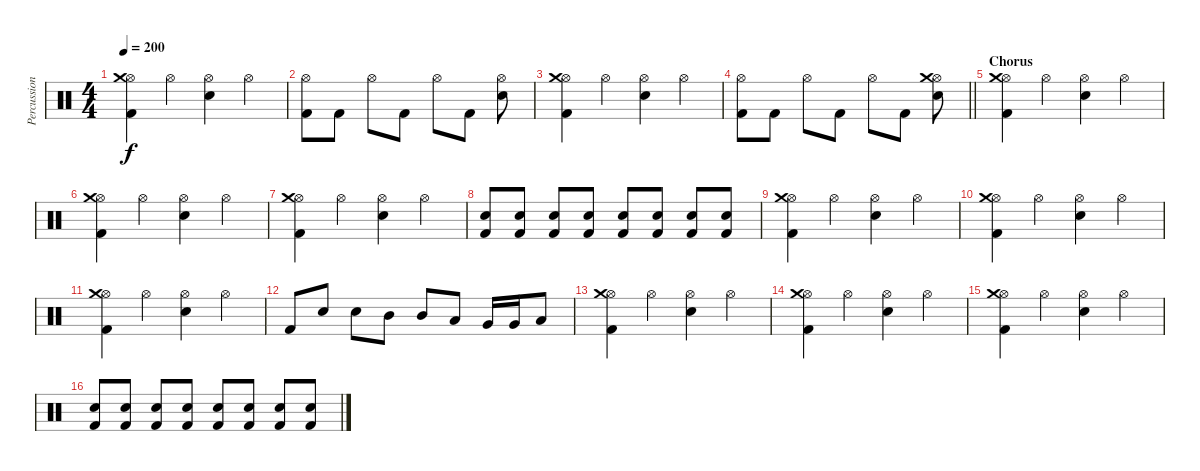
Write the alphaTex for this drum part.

\track ("Percussion" "Percussion") {instrument percussion}
\staff {score}
\articulation defaults
\ts (4 4)
\tempo 200
\clef neutral
\ks c
("Kick (hit) 2" "Hi-Hat (open)" "Crash medium (hit)").4{dy f} "Hi-Hat (open)".4 ("Electric Snare (hit)" "Hi-Hat (open)").4 "Hi-Hat (open)".4 |
("Kick (hit) 2" "Hi-Hat (open)").8 "Kick (hit) 2".8 "Hi-Hat (open)".8 "Kick (hit) 2".8 "Hi-Hat (open)".8 "Kick (hit) 2".8 ("Electric Snare (hit)" "Hi-Hat (open)").8 |
("Kick (hit) 2" "Hi-Hat (open)" "Crash medium (hit)").4 "Hi-Hat (open)".4 ("Electric Snare (hit)" "Hi-Hat (open)").4 "Hi-Hat (open)".4 |
\barLineRight lightlight
("Kick (hit) 2" "Hi-Hat (open)").8 "Kick (hit) 2".8 "Hi-Hat (open)".8 "Kick (hit) 2".8 "Hi-Hat (open)".8 "Kick (hit) 2".8 ("Electric Snare (hit)" "Hi-Hat (open)" "Crash medium (hit)").8 |
\section ("" "Chorus")
("Kick (hit) 2" "Hi-Hat (open)" "Crash medium (hit)").4 "Hi-Hat (open)".4 ("Electric Snare (hit)" "Hi-Hat (open)").4 "Hi-Hat (open)".4 |
("Kick (hit) 2" "Hi-Hat (open)" "Crash medium (hit)").4 "Hi-Hat (open)".4 ("Electric Snare (hit)" "Hi-Hat (open)").4 "Hi-Hat (open)".4 |
("Kick (hit) 2" "Hi-Hat (open)" "Crash medium (hit)").4 "Hi-Hat (open)".4 ("Electric Snare (hit)" "Hi-Hat (open)").4 "Hi-Hat (open)".4 |
("Kick (hit) 2" "Electric Snare (hit)").8 ("Kick (hit) 2" "Electric Snare (hit)").8 ("Kick (hit) 2" "Electric Snare (hit)").8 ("Kick (hit) 2" "Electric Snare (hit)").8 ("Kick (hit) 2" "Electric Snare (hit)").8 ("Kick (hit) 2" "Electric Snare (hit)").8 ("Kick (hit) 2" "Electric Snare (hit)").8 ("Kick (hit) 2" "Electric Snare (hit)").8 |
("Kick (hit) 2" "Hi-Hat (open)" "Crash medium (hit)").4 "Hi-Hat (open)".4 ("Electric Snare (hit)" "Hi-Hat (open)").4 "Hi-Hat (open)".4 |
("Kick (hit) 2" "Hi-Hat (open)" "Crash medium (hit)").4 "Hi-Hat (open)".4 ("Electric Snare (hit)" "Hi-Hat (open)").4 "Hi-Hat (open)".4 |
("Kick (hit) 2" "Hi-Hat (open)" "Crash medium (hit)").4 "Hi-Hat (open)".4 ("Electric Snare (hit)" "Hi-Hat (open)").4 "Hi-Hat (open)".4 |
"Kick (hit) 2".8 "Electric Snare (hit)".8 "Electric Snare (hit)".8 "Mid Tom (hit)".8 "Mid Tom (hit)".8 "Low Tom (hit)".8 "Very Low Tom (hit)".16 "Very Low Tom (hit)".16 "Low Floor Tom (hit)".8 |
("Kick (hit) 2" "Hi-Hat (open)" "Crash medium (hit)").4 "Hi-Hat (open)".4 ("Electric Snare (hit)" "Hi-Hat (open)").4 "Hi-Hat (open)".4 |
("Kick (hit) 2" "Hi-Hat (open)" "Crash medium (hit)").4 "Hi-Hat (open)".4 ("Electric Snare (hit)" "Hi-Hat (open)").4 "Hi-Hat (open)".4 |
("Kick (hit) 2" "Hi-Hat (open)" "Crash medium (hit)").4 "Hi-Hat (open)".4 ("Electric Snare (hit)" "Hi-Hat (open)").4 "Hi-Hat (open)".4 |
("Kick (hit) 2" "Electric Snare (hit)").8 ("Kick (hit) 2" "Electric Snare (hit)").8 ("Kick (hit) 2" "Electric Snare (hit)").8 ("Kick (hit) 2" "Electric Snare (hit)").8 ("Kick (hit) 2" "Electric Snare (hit)").8 ("Kick (hit) 2" "Electric Snare (hit)").8 ("Kick (hit) 2" "Electric Snare (hit)").8 ("Kick (hit) 2" "Electric Snare (hit)").8
